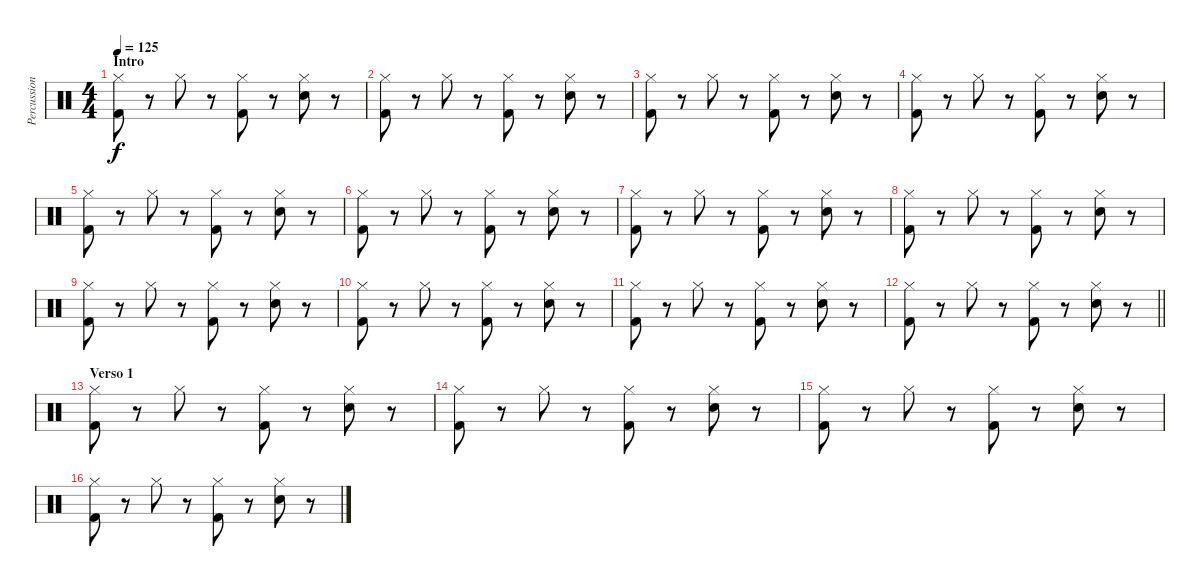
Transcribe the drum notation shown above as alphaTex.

\track ("Percussion" "Percussion") {instrument percussion}
\staff {score}
\articulation defaults
\ts (4 4)
\section ("" "Intro")
\tempo 125
\clef neutral
\ks c
("Kick (hit) 2" "Hi-Hat (closed)").8{dy f} r.8 "Hi-Hat (closed)".8 r.8 ("Kick (hit) 2" "Hi-Hat (closed)").8 r.8 ("Electric Snare (hit)" "Hi-Hat (closed)").8 r.8 |
("Kick (hit) 2" "Hi-Hat (closed)").8 r.8 "Hi-Hat (closed)".8 r.8 ("Kick (hit) 2" "Hi-Hat (closed)").8 r.8 ("Electric Snare (hit)" "Hi-Hat (closed)").8 r.8 |
("Kick (hit) 2" "Hi-Hat (closed)").8 r.8 "Hi-Hat (closed)".8 r.8 ("Kick (hit) 2" "Hi-Hat (closed)").8 r.8 ("Electric Snare (hit)" "Hi-Hat (closed)").8 r.8 |
("Kick (hit) 2" "Hi-Hat (closed)").8 r.8 "Hi-Hat (closed)".8 r.8 ("Kick (hit) 2" "Hi-Hat (closed)").8 r.8 ("Electric Snare (hit)" "Hi-Hat (closed)").8 r.8 |
("Kick (hit) 2" "Hi-Hat (closed)").8 r.8 "Hi-Hat (closed)".8 r.8 ("Kick (hit) 2" "Hi-Hat (closed)").8 r.8 ("Electric Snare (hit)" "Hi-Hat (closed)").8 r.8 |
("Kick (hit) 2" "Hi-Hat (closed)").8 r.8 "Hi-Hat (closed)".8 r.8 ("Kick (hit) 2" "Hi-Hat (closed)").8 r.8 ("Electric Snare (hit)" "Hi-Hat (closed)").8 r.8 |
("Kick (hit) 2" "Hi-Hat (closed)").8 r.8 "Hi-Hat (closed)".8 r.8 ("Kick (hit) 2" "Hi-Hat (closed)").8 r.8 ("Electric Snare (hit)" "Hi-Hat (closed)").8 r.8 |
("Kick (hit) 2" "Hi-Hat (closed)").8 r.8 "Hi-Hat (closed)".8 r.8 ("Kick (hit) 2" "Hi-Hat (closed)").8 r.8 ("Electric Snare (hit)" "Hi-Hat (closed)").8 r.8 |
("Kick (hit) 2" "Hi-Hat (closed)").8 r.8 "Hi-Hat (closed)".8 r.8 ("Kick (hit) 2" "Hi-Hat (closed)").8 r.8 ("Electric Snare (hit)" "Hi-Hat (closed)").8 r.8 |
("Kick (hit) 2" "Hi-Hat (closed)").8 r.8 "Hi-Hat (closed)".8 r.8 ("Kick (hit) 2" "Hi-Hat (closed)").8 r.8 ("Electric Snare (hit)" "Hi-Hat (closed)").8 r.8 |
("Kick (hit) 2" "Hi-Hat (closed)").8 r.8 "Hi-Hat (closed)".8 r.8 ("Kick (hit) 2" "Hi-Hat (closed)").8 r.8 ("Electric Snare (hit)" "Hi-Hat (closed)").8 r.8 |
\barLineRight lightlight
("Kick (hit) 2" "Hi-Hat (closed)").8 r.8 "Hi-Hat (closed)".8 r.8 ("Kick (hit) 2" "Hi-Hat (closed)").8 r.8 ("Electric Snare (hit)" "Hi-Hat (closed)").8 r.8 |
\section ("" "Verso 1")
("Kick (hit) 2" "Hi-Hat (closed)").8 r.8 "Hi-Hat (closed)".8 r.8 ("Kick (hit) 2" "Hi-Hat (closed)").8 r.8 ("Electric Snare (hit)" "Hi-Hat (closed)").8 r.8 |
("Kick (hit) 2" "Hi-Hat (closed)").8 r.8 "Hi-Hat (closed)".8 r.8 ("Kick (hit) 2" "Hi-Hat (closed)").8 r.8 ("Electric Snare (hit)" "Hi-Hat (closed)").8 r.8 |
("Kick (hit) 2" "Hi-Hat (closed)").8 r.8 "Hi-Hat (closed)".8 r.8 ("Kick (hit) 2" "Hi-Hat (closed)").8 r.8 ("Electric Snare (hit)" "Hi-Hat (closed)").8 r.8 |
("Kick (hit) 2" "Hi-Hat (closed)").8 r.8 "Hi-Hat (closed)".8 r.8 ("Kick (hit) 2" "Hi-Hat (closed)").8 r.8 ("Electric Snare (hit)" "Hi-Hat (closed)").8 r.8
